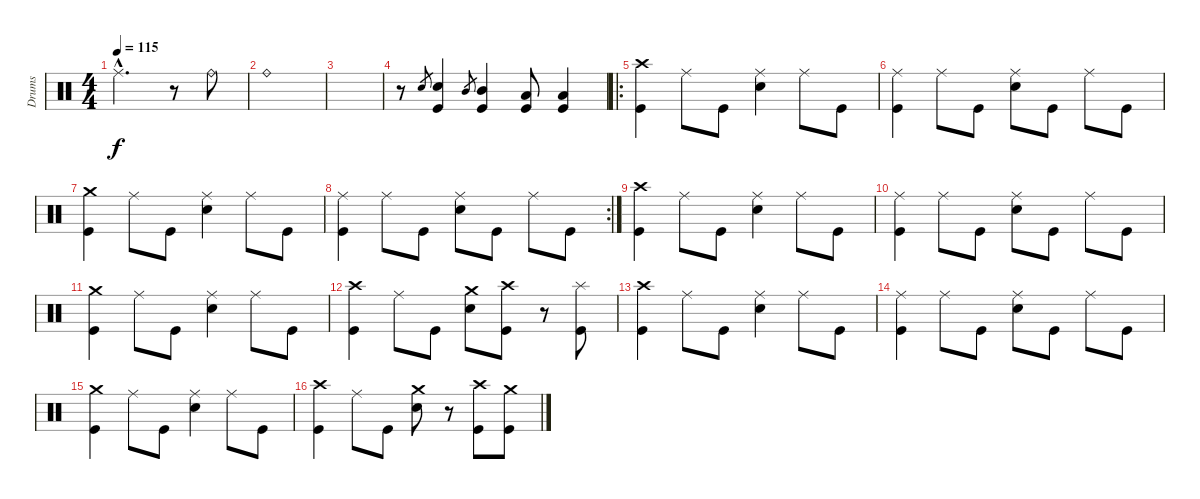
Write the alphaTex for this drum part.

\track ("Drums" "Drums") {instrument percussion}
\staff {score}
\articulation defaults
\ts (4 4)
\tempo 115
\clef neutral
\ks c "Ride (middle)"{hac}.2{d dy f}
r.8 "Ride (bell)".8 |
"Ride (bell)".1 |
|
r.8 "Snare (hit) 2".8{gr} ("Snare (hit) 2" "Kick (hit)").4 "Mid Tom (hit)".8{gr} ("Mid Tom (hit)" "Kick (hit)").4 ("Low Floor Tom (hit)" "Kick (hit)").8 ("Low Floor Tom (hit)" "Kick (hit)").4 |
\ro
("Crash high (hit)" "Kick (hit)").4 "Ride (middle)".8 "Kick (hit)".8 ("Ride (middle)" "Snare (hit) 2").4 "Ride (middle)".8 "Kick (hit)".8 |
("Ride (middle)" "Kick (hit)").4 "Ride (middle)".8 "Kick (hit)".8 ("Ride (middle)" "Snare (hit) 2").8 "Kick (hit)".8 "Ride (middle)".8 "Kick (hit)".8 |
("Crash medium (hit)" "Kick (hit)").4 "Ride (middle)".8 "Kick (hit)".8 ("Ride (middle)" "Snare (hit) 2").4 "Ride (middle)".8 "Kick (hit)".8 |
\rc 2
("Ride (middle)" "Kick (hit)").4 "Ride (middle)".8 "Kick (hit)".8 ("Ride (middle)" "Snare (hit) 2").8 "Kick (hit)".8 "Ride (middle)".8 "Kick (hit)".8 |
("Crash high (hit)" "Kick (hit)").4 "Ride (middle)".8 "Kick (hit)".8 ("Ride (middle)" "Snare (hit) 2").4 "Ride (middle)".8 "Kick (hit)".8 |
("Ride (middle)" "Kick (hit)").4 "Ride (middle)".8 "Kick (hit)".8 ("Ride (middle)" "Snare (hit) 2").8 "Kick (hit)".8 "Ride (middle)".8 "Kick (hit)".8 |
("Crash medium (hit)" "Kick (hit)").4 "Ride (middle)".8 "Kick (hit)".8 ("Ride (middle)" "Snare (hit) 2").4 "Ride (middle)".8 "Kick (hit)".8 |
("Crash high (hit)" "Kick (hit)").4 "Ride (middle)".8 "Kick (hit)".8 ("Crash medium (hit)" "Snare (hit) 2").8 ("Crash high (hit)" "Kick (hit)").8 r.8 ("Splash (hit)" "Kick (hit)").8 |
("Crash high (hit)" "Kick (hit)").4 "Ride (middle)".8 "Kick (hit)".8 ("Ride (middle)" "Snare (hit) 2").4 "Ride (middle)".8 "Kick (hit)".8 |
("Ride (middle)" "Kick (hit)").4 "Ride (middle)".8 "Kick (hit)".8 ("Ride (middle)" "Snare (hit) 2").8 "Kick (hit)".8 "Ride (middle)".8 "Kick (hit)".8 |
("Crash medium (hit)" "Kick (hit)").4 "Ride (middle)".8 "Kick (hit)".8 ("Ride (middle)" "Snare (hit) 2").4 "Ride (middle)".8 "Kick (hit)".8 |
("Crash high (hit)" "Kick (hit)").4 "Ride (middle)".8 "Kick (hit)".8 ("Crash medium (hit)" "Snare (hit) 2").8 r.8 ("Crash high (hit)" "Kick (hit)").8 ("Crash medium (hit)" "Kick (hit)").8
